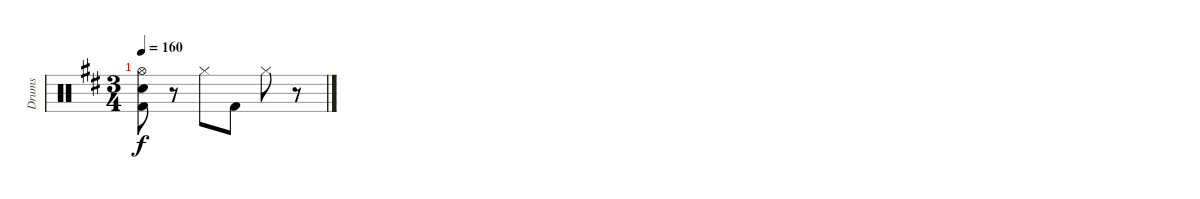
\track ("Drums" "Drums") {instrument percussion}
\staff {score}
\articulation defaults
\ts (3 4)
\tempo 160
\clef neutral
\ks bminor
("Hi-Hat (open)" "Snare (hit) 2" "Kick (hit) 2").8{dy f} r.8 "Hi-Hat (closed)".8 "Kick (hit) 2".8 "Hi-Hat (closed)".8 r.8
